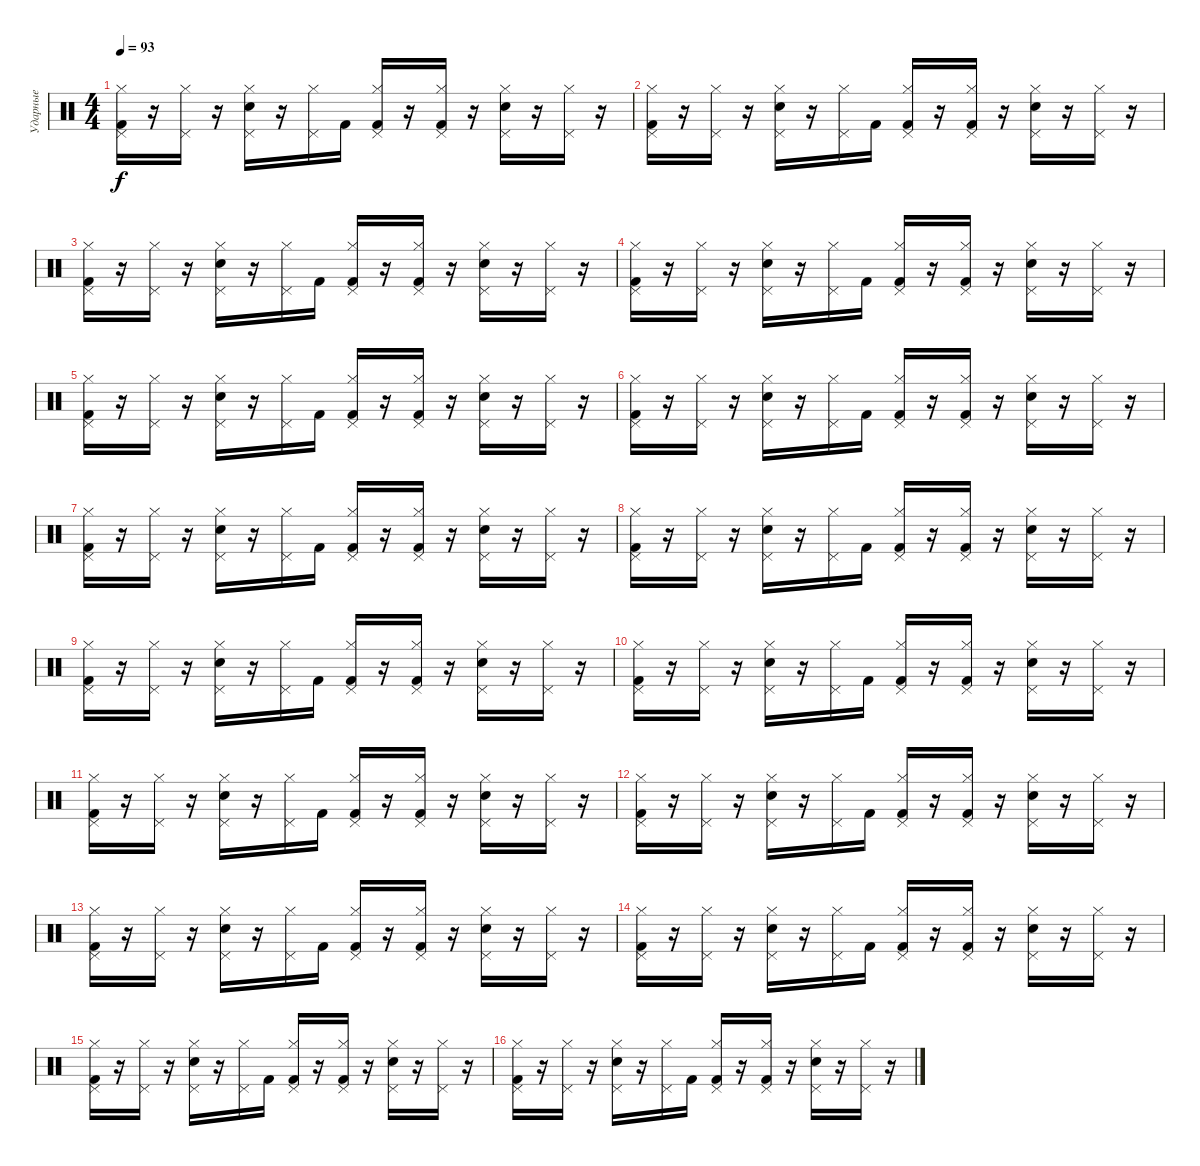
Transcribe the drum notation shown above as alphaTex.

\track ("Ударные" "Ударные") {instrument percussion}
\staff {score}
\articulation defaults
\ts (4 4)
\tempo 93
\clef neutral
\ks c
("Kick (hit) 2" "Hi-Hat (closed)" "Pedal Hi-Hat (hit)").16{dy f} r.16 ("Hi-Hat (closed)" "Pedal Hi-Hat (hit)").16 r.16 ("Snare (hit) 2" "Hi-Hat (closed)" "Pedal Hi-Hat (hit)").16 r.16 ("Hi-Hat (closed)" "Pedal Hi-Hat (hit)").16 "Kick (hit) 2".16 ("Kick (hit) 2" "Hi-Hat (closed)" "Pedal Hi-Hat (hit)").16 r.16 ("Kick (hit) 2" "Hi-Hat (closed)" "Pedal Hi-Hat (hit)").16 r.16 ("Snare (hit) 2" "Hi-Hat (closed)" "Pedal Hi-Hat (hit)").16 r.16 ("Hi-Hat (closed)" "Pedal Hi-Hat (hit)").16 r.16 |
("Kick (hit) 2" "Hi-Hat (closed)" "Pedal Hi-Hat (hit)").16 r.16 ("Hi-Hat (closed)" "Pedal Hi-Hat (hit)").16 r.16 ("Snare (hit) 2" "Hi-Hat (closed)" "Pedal Hi-Hat (hit)").16 r.16 ("Hi-Hat (closed)" "Pedal Hi-Hat (hit)").16 "Kick (hit) 2".16 ("Kick (hit) 2" "Hi-Hat (closed)" "Pedal Hi-Hat (hit)").16 r.16 ("Kick (hit) 2" "Hi-Hat (closed)" "Pedal Hi-Hat (hit)").16 r.16 ("Snare (hit) 2" "Hi-Hat (closed)" "Pedal Hi-Hat (hit)").16 r.16 ("Hi-Hat (closed)" "Pedal Hi-Hat (hit)").16 r.16 |
("Kick (hit) 2" "Hi-Hat (closed)" "Pedal Hi-Hat (hit)").16 r.16 ("Hi-Hat (closed)" "Pedal Hi-Hat (hit)").16 r.16 ("Snare (hit) 2" "Hi-Hat (closed)" "Pedal Hi-Hat (hit)").16 r.16 ("Hi-Hat (closed)" "Pedal Hi-Hat (hit)").16 "Kick (hit) 2".16 ("Kick (hit) 2" "Hi-Hat (closed)" "Pedal Hi-Hat (hit)").16 r.16 ("Kick (hit) 2" "Hi-Hat (closed)" "Pedal Hi-Hat (hit)").16 r.16 ("Snare (hit) 2" "Hi-Hat (closed)" "Pedal Hi-Hat (hit)").16 r.16 ("Hi-Hat (closed)" "Pedal Hi-Hat (hit)").16 r.16 |
("Kick (hit) 2" "Hi-Hat (closed)" "Pedal Hi-Hat (hit)").16 r.16 ("Hi-Hat (closed)" "Pedal Hi-Hat (hit)").16 r.16 ("Snare (hit) 2" "Hi-Hat (closed)" "Pedal Hi-Hat (hit)").16 r.16 ("Hi-Hat (closed)" "Pedal Hi-Hat (hit)").16 "Kick (hit) 2".16 ("Kick (hit) 2" "Hi-Hat (closed)" "Pedal Hi-Hat (hit)").16 r.16 ("Kick (hit) 2" "Hi-Hat (closed)" "Pedal Hi-Hat (hit)").16 r.16 ("Snare (hit) 2" "Hi-Hat (closed)" "Pedal Hi-Hat (hit)").16 r.16 ("Hi-Hat (closed)" "Pedal Hi-Hat (hit)").16 r.16 |
("Kick (hit) 2" "Hi-Hat (closed)" "Pedal Hi-Hat (hit)").16 r.16 ("Hi-Hat (closed)" "Pedal Hi-Hat (hit)").16 r.16 ("Snare (hit) 2" "Hi-Hat (closed)" "Pedal Hi-Hat (hit)").16 r.16 ("Hi-Hat (closed)" "Pedal Hi-Hat (hit)").16 "Kick (hit) 2".16 ("Kick (hit) 2" "Hi-Hat (closed)" "Pedal Hi-Hat (hit)").16 r.16 ("Kick (hit) 2" "Hi-Hat (closed)" "Pedal Hi-Hat (hit)").16 r.16 ("Snare (hit) 2" "Hi-Hat (closed)" "Pedal Hi-Hat (hit)").16 r.16 ("Hi-Hat (closed)" "Pedal Hi-Hat (hit)").16 r.16 |
("Kick (hit) 2" "Hi-Hat (closed)" "Pedal Hi-Hat (hit)").16 r.16 ("Hi-Hat (closed)" "Pedal Hi-Hat (hit)").16 r.16 ("Snare (hit) 2" "Hi-Hat (closed)" "Pedal Hi-Hat (hit)").16 r.16 ("Hi-Hat (closed)" "Pedal Hi-Hat (hit)").16 "Kick (hit) 2".16 ("Kick (hit) 2" "Hi-Hat (closed)" "Pedal Hi-Hat (hit)").16 r.16 ("Kick (hit) 2" "Hi-Hat (closed)" "Pedal Hi-Hat (hit)").16 r.16 ("Snare (hit) 2" "Hi-Hat (closed)" "Pedal Hi-Hat (hit)").16 r.16 ("Hi-Hat (closed)" "Pedal Hi-Hat (hit)").16 r.16 |
("Kick (hit) 2" "Hi-Hat (closed)" "Pedal Hi-Hat (hit)").16 r.16 ("Hi-Hat (closed)" "Pedal Hi-Hat (hit)").16 r.16 ("Snare (hit) 2" "Hi-Hat (closed)" "Pedal Hi-Hat (hit)").16 r.16 ("Hi-Hat (closed)" "Pedal Hi-Hat (hit)").16 "Kick (hit) 2".16 ("Kick (hit) 2" "Hi-Hat (closed)" "Pedal Hi-Hat (hit)").16 r.16 ("Kick (hit) 2" "Hi-Hat (closed)" "Pedal Hi-Hat (hit)").16 r.16 ("Snare (hit) 2" "Hi-Hat (closed)" "Pedal Hi-Hat (hit)").16 r.16 ("Hi-Hat (closed)" "Pedal Hi-Hat (hit)").16 r.16 |
("Kick (hit) 2" "Hi-Hat (closed)" "Pedal Hi-Hat (hit)").16 r.16 ("Hi-Hat (closed)" "Pedal Hi-Hat (hit)").16 r.16 ("Snare (hit) 2" "Hi-Hat (closed)" "Pedal Hi-Hat (hit)").16 r.16 ("Hi-Hat (closed)" "Pedal Hi-Hat (hit)").16 "Kick (hit) 2".16 ("Kick (hit) 2" "Hi-Hat (closed)" "Pedal Hi-Hat (hit)").16 r.16 ("Kick (hit) 2" "Hi-Hat (closed)" "Pedal Hi-Hat (hit)").16 r.16 ("Snare (hit) 2" "Hi-Hat (closed)" "Pedal Hi-Hat (hit)").16 r.16 ("Hi-Hat (closed)" "Pedal Hi-Hat (hit)").16 r.16 |
("Kick (hit) 2" "Hi-Hat (closed)" "Pedal Hi-Hat (hit)").16 r.16 ("Hi-Hat (closed)" "Pedal Hi-Hat (hit)").16 r.16 ("Snare (hit) 2" "Hi-Hat (closed)" "Pedal Hi-Hat (hit)").16 r.16 ("Hi-Hat (closed)" "Pedal Hi-Hat (hit)").16 "Kick (hit) 2".16 ("Kick (hit) 2" "Hi-Hat (closed)" "Pedal Hi-Hat (hit)").16 r.16 ("Kick (hit) 2" "Hi-Hat (closed)" "Pedal Hi-Hat (hit)").16 r.16 ("Snare (hit) 2" "Hi-Hat (closed)" "Pedal Hi-Hat (hit)").16 r.16 ("Hi-Hat (closed)" "Pedal Hi-Hat (hit)").16 r.16 |
("Kick (hit) 2" "Hi-Hat (closed)" "Pedal Hi-Hat (hit)").16 r.16 ("Hi-Hat (closed)" "Pedal Hi-Hat (hit)").16 r.16 ("Snare (hit) 2" "Hi-Hat (closed)" "Pedal Hi-Hat (hit)").16 r.16 ("Hi-Hat (closed)" "Pedal Hi-Hat (hit)").16 "Kick (hit) 2".16 ("Kick (hit) 2" "Hi-Hat (closed)" "Pedal Hi-Hat (hit)").16 r.16 ("Kick (hit) 2" "Hi-Hat (closed)" "Pedal Hi-Hat (hit)").16 r.16 ("Snare (hit) 2" "Hi-Hat (closed)" "Pedal Hi-Hat (hit)").16 r.16 ("Hi-Hat (closed)" "Pedal Hi-Hat (hit)").16 r.16 |
("Kick (hit) 2" "Hi-Hat (closed)" "Pedal Hi-Hat (hit)").16 r.16 ("Hi-Hat (closed)" "Pedal Hi-Hat (hit)").16 r.16 ("Snare (hit) 2" "Hi-Hat (closed)" "Pedal Hi-Hat (hit)").16 r.16 ("Hi-Hat (closed)" "Pedal Hi-Hat (hit)").16 "Kick (hit) 2".16 ("Kick (hit) 2" "Hi-Hat (closed)" "Pedal Hi-Hat (hit)").16 r.16 ("Kick (hit) 2" "Hi-Hat (closed)" "Pedal Hi-Hat (hit)").16 r.16 ("Snare (hit) 2" "Hi-Hat (closed)" "Pedal Hi-Hat (hit)").16 r.16 ("Hi-Hat (closed)" "Pedal Hi-Hat (hit)").16 r.16 |
("Kick (hit) 2" "Hi-Hat (closed)" "Pedal Hi-Hat (hit)").16 r.16 ("Hi-Hat (closed)" "Pedal Hi-Hat (hit)").16 r.16 ("Snare (hit) 2" "Hi-Hat (closed)" "Pedal Hi-Hat (hit)").16 r.16 ("Hi-Hat (closed)" "Pedal Hi-Hat (hit)").16 "Kick (hit) 2".16 ("Kick (hit) 2" "Hi-Hat (closed)" "Pedal Hi-Hat (hit)").16 r.16 ("Kick (hit) 2" "Hi-Hat (closed)" "Pedal Hi-Hat (hit)").16 r.16 ("Snare (hit) 2" "Hi-Hat (closed)" "Pedal Hi-Hat (hit)").16 r.16 ("Hi-Hat (closed)" "Pedal Hi-Hat (hit)").16 r.16 |
("Kick (hit) 2" "Hi-Hat (closed)" "Pedal Hi-Hat (hit)").16 r.16 ("Hi-Hat (closed)" "Pedal Hi-Hat (hit)").16 r.16 ("Snare (hit) 2" "Hi-Hat (closed)" "Pedal Hi-Hat (hit)").16 r.16 ("Hi-Hat (closed)" "Pedal Hi-Hat (hit)").16 "Kick (hit) 2".16 ("Kick (hit) 2" "Hi-Hat (closed)" "Pedal Hi-Hat (hit)").16 r.16 ("Kick (hit) 2" "Hi-Hat (closed)" "Pedal Hi-Hat (hit)").16 r.16 ("Snare (hit) 2" "Hi-Hat (closed)" "Pedal Hi-Hat (hit)").16 r.16 ("Hi-Hat (closed)" "Pedal Hi-Hat (hit)").16 r.16 |
("Kick (hit) 2" "Hi-Hat (closed)" "Pedal Hi-Hat (hit)").16 r.16 ("Hi-Hat (closed)" "Pedal Hi-Hat (hit)").16 r.16 ("Snare (hit) 2" "Hi-Hat (closed)" "Pedal Hi-Hat (hit)").16 r.16 ("Hi-Hat (closed)" "Pedal Hi-Hat (hit)").16 "Kick (hit) 2".16 ("Kick (hit) 2" "Hi-Hat (closed)" "Pedal Hi-Hat (hit)").16 r.16 ("Kick (hit) 2" "Hi-Hat (closed)" "Pedal Hi-Hat (hit)").16 r.16 ("Snare (hit) 2" "Hi-Hat (closed)" "Pedal Hi-Hat (hit)").16 r.16 ("Hi-Hat (closed)" "Pedal Hi-Hat (hit)").16 r.16 |
("Kick (hit) 2" "Hi-Hat (closed)" "Pedal Hi-Hat (hit)").16 r.16 ("Hi-Hat (closed)" "Pedal Hi-Hat (hit)").16 r.16 ("Snare (hit) 2" "Hi-Hat (closed)" "Pedal Hi-Hat (hit)").16 r.16 ("Hi-Hat (closed)" "Pedal Hi-Hat (hit)").16 "Kick (hit) 2".16 ("Kick (hit) 2" "Hi-Hat (closed)" "Pedal Hi-Hat (hit)").16 r.16 ("Kick (hit) 2" "Hi-Hat (closed)" "Pedal Hi-Hat (hit)").16 r.16 ("Snare (hit) 2" "Hi-Hat (closed)" "Pedal Hi-Hat (hit)").16 r.16 ("Hi-Hat (closed)" "Pedal Hi-Hat (hit)").16 r.16 |
("Kick (hit) 2" "Hi-Hat (closed)" "Pedal Hi-Hat (hit)").16 r.16 ("Hi-Hat (closed)" "Pedal Hi-Hat (hit)").16 r.16 ("Snare (hit) 2" "Hi-Hat (closed)" "Pedal Hi-Hat (hit)").16 r.16 ("Hi-Hat (closed)" "Pedal Hi-Hat (hit)").16 "Kick (hit) 2".16 ("Kick (hit) 2" "Hi-Hat (closed)" "Pedal Hi-Hat (hit)").16 r.16 ("Kick (hit) 2" "Hi-Hat (closed)" "Pedal Hi-Hat (hit)").16 r.16 ("Snare (hit) 2" "Hi-Hat (closed)" "Pedal Hi-Hat (hit)").16 r.16 ("Hi-Hat (closed)" "Pedal Hi-Hat (hit)").16 r.16
